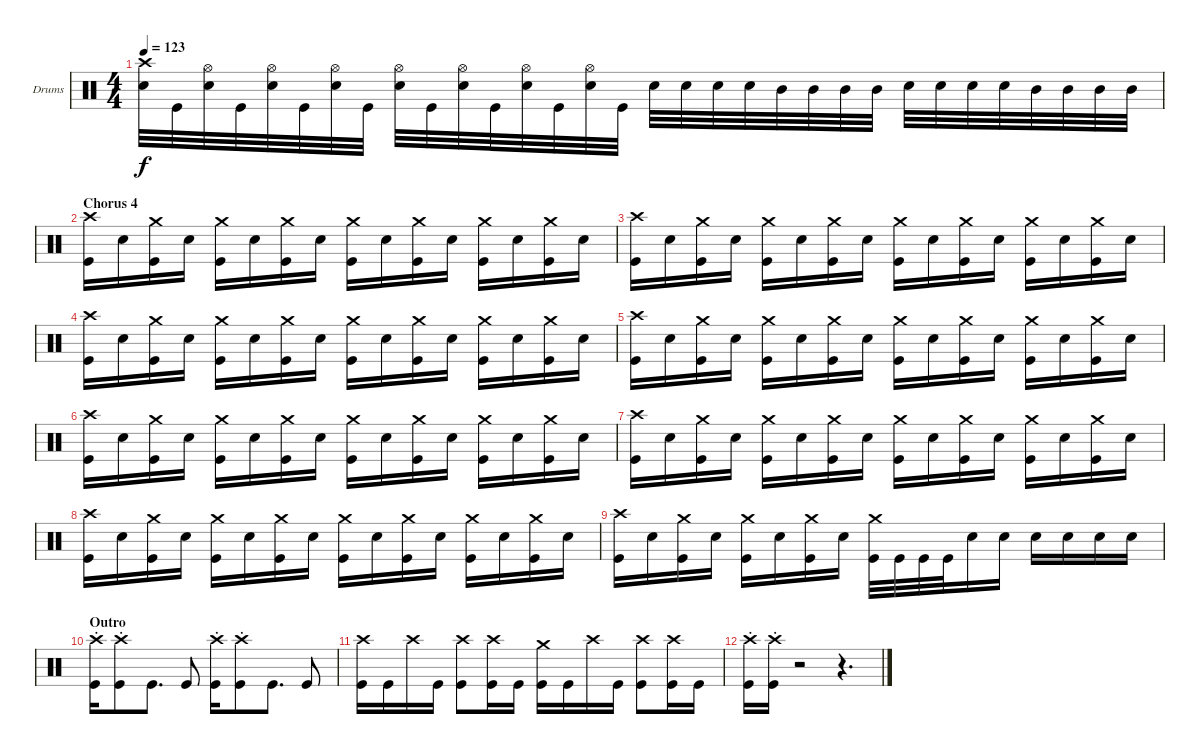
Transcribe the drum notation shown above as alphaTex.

\defaultSystemsLayout 4
\bracketExtendMode groupsimilarinstruments
\firstSystemTrackNameOrientation horizontal
\otherSystemsTrackNameOrientation horizontal
\track ("Drumkit" "Drums") {instrument percussion}
\staff {score}
\articulation defaults
\ts (4 4)
\tempo 123
\clef neutral
\scale
0.333333
\ks c
("Snare (hit) 2" "Crash high (hit)").32{dy f} "Kick (hit)".32 ("Snare (hit) 2" "Hi-Hat (open)").32 "Kick (hit)".32 ("Snare (hit) 2" "Hi-Hat (open)").32 "Kick (hit)".32 ("Snare (hit) 2" "Hi-Hat (open)").32 "Kick (hit)".32 ("Snare (hit) 2" "Hi-Hat (open)").32 "Kick (hit)".32 ("Snare (hit) 2" "Hi-Hat (open)").32 "Kick (hit)".32 ("Snare (hit) 2" "Hi-Hat (open)").32 "Kick (hit)".32 ("Snare (hit) 2" "Hi-Hat (open)").32 "Kick (hit)".32 "Snare (hit) 2".32 "Snare (hit) 2".32 "Snare (hit) 2".32 "Snare (hit) 2".32 "Mid Tom (hit)".32 "Mid Tom (hit)".32 "Mid Tom (hit)".32 "Mid Tom (hit)".32 "Snare (hit) 2".32 "Snare (hit) 2".32 "Snare (hit) 2".32 "Snare (hit) 2".32 "Mid Tom (hit)".32 "Mid Tom (hit)".32 "Mid Tom (hit)".32 "Mid Tom (hit)".32 |
\section ("" "Chorus 4")
\scale
0.333333 ("Kick (hit)" "Crash high (hit)").16 "Snare (hit) 2".16 ("Kick (hit)" "Crash medium (hit)").16 "Snare (hit) 2".16 ("Kick (hit)" "Crash medium (hit)").16 "Snare (hit) 2".16 ("Kick (hit)" "Crash medium (hit)").16 "Snare (hit) 2".16 ("Kick (hit)" "Crash medium (hit)").16 "Snare (hit) 2".16 ("Kick (hit)" "Crash medium (hit)").16 "Snare (hit) 2".16 ("Kick (hit)" "Crash medium (hit)").16 "Snare (hit) 2".16 ("Kick (hit)" "Crash medium (hit)").16 "Snare (hit) 2".16 |
\scale
0.333333 ("Kick (hit)" "Crash high (hit)").16 "Snare (hit) 2".16 ("Kick (hit)" "Crash medium (hit)").16 "Snare (hit) 2".16 ("Kick (hit)" "Crash medium (hit)").16 "Snare (hit) 2".16 ("Kick (hit)" "Crash medium (hit)").16 "Snare (hit) 2".16 ("Kick (hit)" "Crash medium (hit)").16 "Snare (hit) 2".16 ("Kick (hit)" "Crash medium (hit)").16 "Snare (hit) 2".16 ("Kick (hit)" "Crash medium (hit)").16 "Snare (hit) 2".16 ("Kick (hit)" "Crash medium (hit)").16 "Snare (hit) 2".16 |
\scale
0.333333 ("Kick (hit)" "Crash high (hit)").16 "Snare (hit) 2".16 ("Kick (hit)" "Crash medium (hit)").16 "Snare (hit) 2".16 ("Kick (hit)" "Crash medium (hit)").16 "Snare (hit) 2".16 ("Kick (hit)" "Crash medium (hit)").16 "Snare (hit) 2".16 ("Kick (hit)" "Crash medium (hit)").16 "Snare (hit) 2".16 ("Kick (hit)" "Crash medium (hit)").16 "Snare (hit) 2".16 ("Kick (hit)" "Crash medium (hit)").16 "Snare (hit) 2".16 ("Kick (hit)" "Crash medium (hit)").16 "Snare (hit) 2".16 |
\scale
0.333333 ("Kick (hit)" "Crash high (hit)").16 "Snare (hit) 2".16 ("Kick (hit)" "Crash medium (hit)").16 "Snare (hit) 2".16 ("Kick (hit)" "Crash medium (hit)").16 "Snare (hit) 2".16 ("Kick (hit)" "Crash medium (hit)").16 "Snare (hit) 2".16 ("Kick (hit)" "Crash medium (hit)").16 "Snare (hit) 2".16 ("Kick (hit)" "Crash medium (hit)").16 "Snare (hit) 2".16 ("Kick (hit)" "Crash medium (hit)").16 "Snare (hit) 2".16 ("Kick (hit)" "Crash medium (hit)").16 "Snare (hit) 2".16 |
\scale
0.333333 ("Kick (hit)" "Crash high (hit)").16 "Snare (hit) 2".16 ("Kick (hit)" "Crash medium (hit)").16 "Snare (hit) 2".16 ("Kick (hit)" "Crash medium (hit)").16 "Snare (hit) 2".16 ("Kick (hit)" "Crash medium (hit)").16 "Snare (hit) 2".16 ("Kick (hit)" "Crash medium (hit)").16 "Snare (hit) 2".16 ("Kick (hit)" "Crash medium (hit)").16 "Snare (hit) 2".16 ("Kick (hit)" "Crash medium (hit)").16 "Snare (hit) 2".16 ("Kick (hit)" "Crash medium (hit)").16 "Snare (hit) 2".16 |
\scale
0.333333 ("Kick (hit)" "Crash high (hit)").16 "Snare (hit) 2".16 ("Kick (hit)" "Crash medium (hit)").16 "Snare (hit) 2".16 ("Kick (hit)" "Crash medium (hit)").16 "Snare (hit) 2".16 ("Kick (hit)" "Crash medium (hit)").16 "Snare (hit) 2".16 ("Kick (hit)" "Crash medium (hit)").16 "Snare (hit) 2".16 ("Kick (hit)" "Crash medium (hit)").16 "Snare (hit) 2".16 ("Kick (hit)" "Crash medium (hit)").16 "Snare (hit) 2".16 ("Kick (hit)" "Crash medium (hit)").16 "Snare (hit) 2".16 |
\scale
0.333333 ("Kick (hit)" "Crash high (hit)").16 "Snare (hit) 2".16 ("Kick (hit)" "Crash medium (hit)").16 "Snare (hit) 2".16 ("Kick (hit)" "Crash medium (hit)").16 "Snare (hit) 2".16 ("Kick (hit)" "Crash medium (hit)").16 "Snare (hit) 2".16 ("Kick (hit)" "Crash medium (hit)").16 "Snare (hit) 2".16 ("Kick (hit)" "Crash medium (hit)").16 "Snare (hit) 2".16 ("Kick (hit)" "Crash medium (hit)").16 "Snare (hit) 2".16 ("Kick (hit)" "Crash medium (hit)").16 "Snare (hit) 2".16 |
\scale
0.333333 ("Kick (hit)" "Crash high (hit)").16 "Snare (hit) 2".16 ("Kick (hit)" "Crash medium (hit)").16 "Snare (hit) 2".16 ("Kick (hit)" "Crash medium (hit)").16 "Snare (hit) 2".16 ("Kick (hit)" "Crash medium (hit)").16 "Snare (hit) 2".16 ("Kick (hit)" "Crash medium (hit)").32 "Kick (hit)".32 "Kick (hit)".32 "Kick (hit)".32 "Snare (hit) 2".16 "Snare (hit) 2".16 "Snare (hit) 2".16 "Snare (hit) 2".16 "Snare (hit) 2".16 "Snare (hit) 2".16 |
\section ("" "Outro")
("Kick (hit)"{st} "Crash high (hit)"{st}).16 ("Kick (hit)"{st} "Crash high (hit)"{st}).8 "Kick (hit)".8{d} "Kick (hit)".8 ("Kick (hit)"{st} "Crash high (hit)"{st}).16 ("Kick (hit)"{st} "Crash high (hit)"{st}).8 "Kick (hit)".8{d} "Kick (hit)".8 |
("Kick (hit)" "Crash high (hit)").16 "Kick (hit)".16 "Crash high (hit)".16 "Kick (hit)".16 ("Kick (hit)" "Crash high (hit)").8 ("Kick (hit)" "Crash high (hit)").16 "Kick (hit)".16 ("Kick (hit)" "Crash medium (hit)").16 "Kick (hit)".16 "Crash high (hit)".16 "Kick (hit)".16 ("Kick (hit)" "Crash high (hit)").8 ("Kick (hit)" "Crash high (hit)").16 "Kick (hit)".16 |
("Kick (hit)"{st} "Crash high (hit)"{st}).16 ("Kick (hit)"{st} "Crash high (hit)"{st}).16 r.2 r.4{d}
